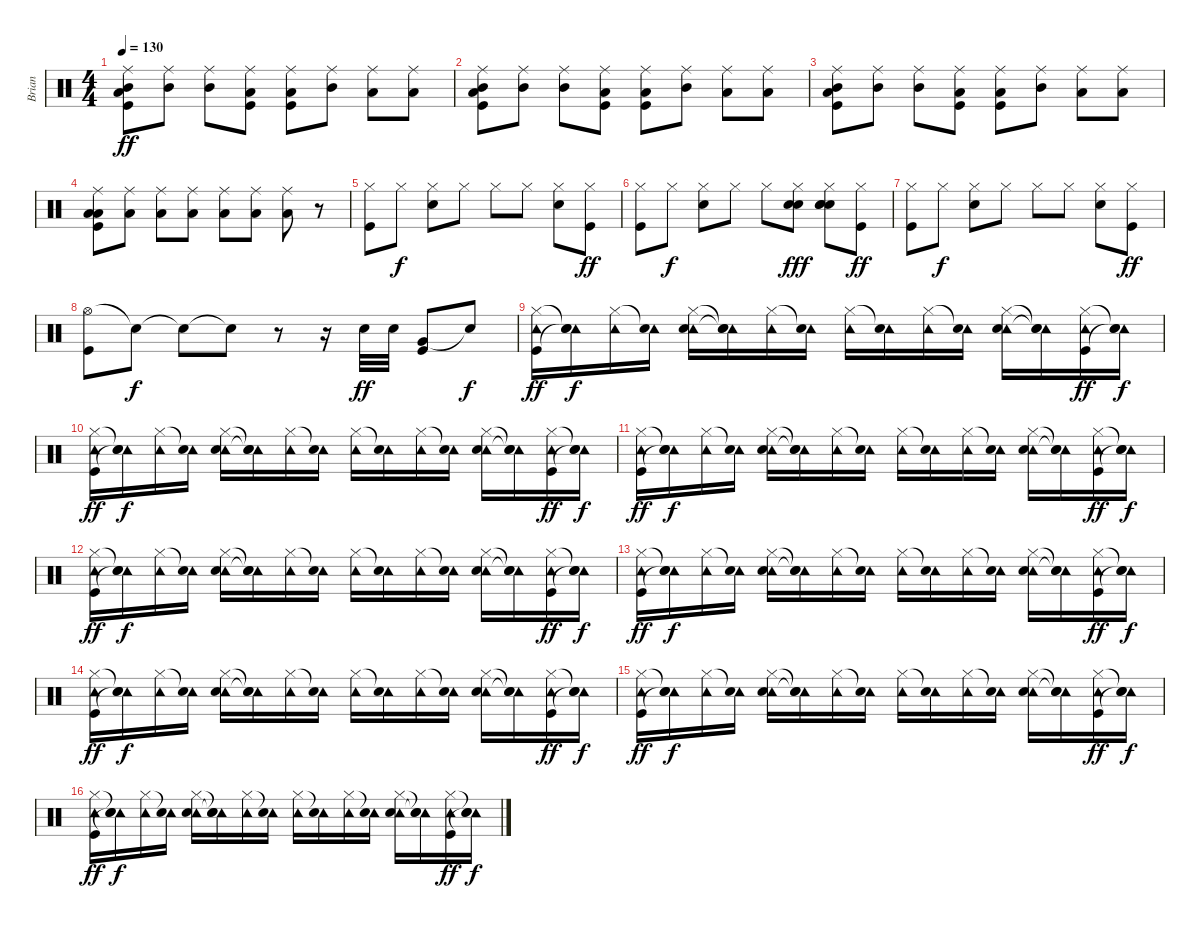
\track ("Brian" "Brian") {instrument percussion}
\staff {score}
\articulation defaults
\ts (4 4)
\tempo 130
\clef neutral
\ks c
("Ride (middle)" "Mid Tom (hit)" "Low Tom (hit)" "Kick (hit)").8{dy ff} ("Ride (middle)" "Mid Tom (hit)").8 ("Ride (middle)" "Mid Tom (hit)").8 ("Ride (middle)" "Low Tom (hit)" "Kick (hit)").8 ("Ride (middle)" "Low Tom (hit)" "Kick (hit)").8 ("Ride (middle)" "Mid Tom (hit)").8 ("Ride (middle)" "Low Tom (hit)").8 ("Ride (middle)" "Low Tom (hit)").8 |
("Ride (middle)" "Mid Tom (hit)" "Low Tom (hit)" "Kick (hit)").8 ("Ride (middle)" "Mid Tom (hit)").8 ("Ride (middle)" "Mid Tom (hit)").8 ("Ride (middle)" "Low Tom (hit)" "Kick (hit)").8 ("Ride (middle)" "Low Tom (hit)" "Kick (hit)").8 ("Ride (middle)" "Mid Tom (hit)").8 ("Ride (middle)" "Low Tom (hit)").8 ("Ride (middle)" "Low Tom (hit)").8 |
("Ride (middle)" "Mid Tom (hit)" "Low Tom (hit)" "Kick (hit)").8 ("Ride (middle)" "Mid Tom (hit)").8 ("Ride (middle)" "Mid Tom (hit)").8 ("Ride (middle)" "Low Tom (hit)" "Kick (hit)").8 ("Ride (middle)" "Low Tom (hit)" "Kick (hit)").8 ("Ride (middle)" "Mid Tom (hit)").8 ("Ride (middle)" "Low Tom (hit)").8 ("Ride (middle)" "Low Tom (hit)").8 |
("Ride (middle)" "Low Floor Tom (hit)" "Low Tom (hit)" "Kick (hit)").8 ("Ride (middle)" "Low Tom (hit)").8 ("Ride (middle)" "Low Tom (hit)").8 ("Ride (middle)" "Low Floor Tom (hit)").8 ("Ride (middle)" "Low Floor Tom (hit)").8 ("Ride (middle)" "Low Tom (hit)").8 ("Ride (middle)" "Low Floor Tom (hit)").8 r.8 |
("Hi-Hat (closed)" "Kick (hit)").8 "Hi-Hat (closed)".8{dy f} ("Hi-Hat (closed)" "Electric Snare (hit)").8 "Hi-Hat (closed)".8 "Hi-Hat (closed)".8 "Hi-Hat (closed)".8 ("Hi-Hat (closed)" "Electric Snare (hit)").8 ("Hi-Hat (closed)" "Kick (hit)").8{dy ff} |
("Hi-Hat (closed)" "Kick (hit)").8 "Hi-Hat (closed)".8{dy f} ("Hi-Hat (closed)" "Electric Snare (hit)").8 "Hi-Hat (closed)".8 "Hi-Hat (closed)".8 ("Hand Clap (hit)" "Hi-Hat (closed)" "Hand Clap (hit)").8{dy fff} ("Hand Clap (hit)" "Hi-Hat (closed)" "Hand Clap (hit)" "Electric Snare (hit)").8 ("Hi-Hat (closed)" "Kick (hit)").8{dy ff} |
("Hi-Hat (closed)" "Kick (hit)").8 "Hi-Hat (closed)".8{dy f} ("Hi-Hat (closed)" "Electric Snare (hit)").8 "Hi-Hat (closed)".8 "Hi-Hat (closed)".8 "Hi-Hat (closed)".8 ("Hi-Hat (closed)" "Electric Snare (hit)").8 ("Hi-Hat (closed)" "Kick (hit)").8{dy ff} |
("Hi-Hat (open)" "Kick (hit)").8 "Snare (hit)"{t}.8{dy f} "Snare (hit)"{t}.8 "Snare (hit)"{t}.8 r.8 r.16 "Electric Snare (hit)".32{dy ff} "Electric Snare (hit)".32 ("Very Low Tom (hit)" "Kick (hit)").8 "Electric Snare (hit)"{t}.8{dy f} |
("Tambourine (hit)" "Hi-Hat (closed)" "Kick (hit)").16{dy ff} ("Tambourine (hit)" "Snare (hit)"{t} "Snare (hit)"{t}).16{dy f} ("Tambourine (hit)" "Hi-Hat (closed)").16 ("Tambourine (hit)" "Snare (hit)"{t}).16 ("Tambourine (hit)" "Hi-Hat (closed)" "Electric Snare (hit)").16 ("Tambourine (hit)" "Snare (hit)"{t} "Snare (hit)"{t}).16 ("Tambourine (hit)" "Hi-Hat (closed)").16 ("Tambourine (hit)" "Snare (hit)"{t}).16 ("Tambourine (hit)" "Hi-Hat (closed)").16 ("Tambourine (hit)" "Snare (hit)"{t}).16 ("Tambourine (hit)" "Hi-Hat (closed)").16 ("Tambourine (hit)" "Snare (hit)"{t}).16 ("Tambourine (hit)" "Hi-Hat (closed)" "Electric Snare (hit)").16 ("Tambourine (hit)" "Snare (hit)"{t} "Snare (hit)"{t}).16 ("Tambourine (hit)" "Hi-Hat (closed)" "Kick (hit)").16{dy ff} ("Tambourine (hit)" "Snare (hit)"{t} "Snare (hit)"{t}).16{dy f} |
("Tambourine (hit)" "Hi-Hat (closed)" "Kick (hit)").16{dy ff} ("Tambourine (hit)" "Snare (hit)"{t} "Snare (hit)"{t}).16{dy f} ("Tambourine (hit)" "Hi-Hat (closed)").16 ("Tambourine (hit)" "Snare (hit)"{t}).16 ("Tambourine (hit)" "Hi-Hat (closed)" "Electric Snare (hit)").16 ("Tambourine (hit)" "Snare (hit)"{t} "Snare (hit)"{t}).16 ("Tambourine (hit)" "Hi-Hat (closed)").16 ("Tambourine (hit)" "Snare (hit)"{t}).16 ("Tambourine (hit)" "Hi-Hat (closed)").16 ("Tambourine (hit)" "Snare (hit)"{t}).16 ("Tambourine (hit)" "Hi-Hat (closed)").16 ("Tambourine (hit)" "Snare (hit)"{t}).16 ("Tambourine (hit)" "Hi-Hat (closed)" "Electric Snare (hit)").16 ("Tambourine (hit)" "Snare (hit)"{t} "Snare (hit)"{t}).16 ("Tambourine (hit)" "Hi-Hat (closed)" "Kick (hit)").16{dy ff} ("Tambourine (hit)" "Snare (hit)"{t} "Snare (hit)"{t}).16{dy f} |
("Tambourine (hit)" "Hi-Hat (closed)" "Kick (hit)").16{dy ff} ("Tambourine (hit)" "Snare (hit)"{t} "Snare (hit)"{t}).16{dy f} ("Tambourine (hit)" "Hi-Hat (closed)").16 ("Tambourine (hit)" "Snare (hit)"{t}).16 ("Tambourine (hit)" "Hi-Hat (closed)" "Electric Snare (hit)").16 ("Tambourine (hit)" "Snare (hit)"{t} "Snare (hit)"{t}).16 ("Tambourine (hit)" "Hi-Hat (closed)").16 ("Tambourine (hit)" "Snare (hit)"{t}).16 ("Tambourine (hit)" "Hi-Hat (closed)").16 ("Tambourine (hit)" "Snare (hit)"{t}).16 ("Tambourine (hit)" "Hi-Hat (closed)").16 ("Tambourine (hit)" "Snare (hit)"{t}).16 ("Tambourine (hit)" "Hi-Hat (closed)" "Electric Snare (hit)").16 ("Tambourine (hit)" "Snare (hit)"{t} "Snare (hit)"{t}).16 ("Tambourine (hit)" "Hi-Hat (closed)" "Kick (hit)").16{dy ff} ("Tambourine (hit)" "Snare (hit)"{t} "Snare (hit)"{t}).16{dy f} |
("Tambourine (hit)" "Hi-Hat (closed)" "Kick (hit)").16{dy ff} ("Tambourine (hit)" "Snare (hit)"{t} "Snare (hit)"{t}).16{dy f} ("Tambourine (hit)" "Hi-Hat (closed)").16 ("Tambourine (hit)" "Snare (hit)"{t}).16 ("Tambourine (hit)" "Hi-Hat (closed)" "Electric Snare (hit)").16 ("Tambourine (hit)" "Snare (hit)"{t} "Snare (hit)"{t}).16 ("Tambourine (hit)" "Hi-Hat (closed)").16 ("Tambourine (hit)" "Snare (hit)"{t}).16 ("Tambourine (hit)" "Hi-Hat (closed)").16 ("Tambourine (hit)" "Snare (hit)"{t}).16 ("Tambourine (hit)" "Hi-Hat (closed)").16 ("Tambourine (hit)" "Snare (hit)"{t}).16 ("Tambourine (hit)" "Hi-Hat (closed)" "Electric Snare (hit)").16 ("Tambourine (hit)" "Snare (hit)"{t} "Snare (hit)"{t}).16 ("Tambourine (hit)" "Hi-Hat (closed)" "Kick (hit)").16{dy ff} ("Tambourine (hit)" "Snare (hit)"{t} "Snare (hit)"{t}).16{dy f} |
("Tambourine (hit)" "Hi-Hat (closed)" "Kick (hit)").16{dy ff} ("Tambourine (hit)" "Snare (hit)"{t} "Snare (hit)"{t}).16{dy f} ("Tambourine (hit)" "Hi-Hat (closed)").16 ("Tambourine (hit)" "Snare (hit)"{t}).16 ("Tambourine (hit)" "Hi-Hat (closed)" "Electric Snare (hit)").16 ("Tambourine (hit)" "Snare (hit)"{t} "Snare (hit)"{t}).16 ("Tambourine (hit)" "Hi-Hat (closed)").16 ("Tambourine (hit)" "Snare (hit)"{t}).16 ("Tambourine (hit)" "Hi-Hat (closed)").16 ("Tambourine (hit)" "Snare (hit)"{t}).16 ("Tambourine (hit)" "Hi-Hat (closed)").16 ("Tambourine (hit)" "Snare (hit)"{t}).16 ("Tambourine (hit)" "Hi-Hat (closed)" "Electric Snare (hit)").16 ("Tambourine (hit)" "Snare (hit)"{t} "Snare (hit)"{t}).16 ("Tambourine (hit)" "Hi-Hat (closed)" "Kick (hit)").16{dy ff} ("Tambourine (hit)" "Snare (hit)"{t} "Snare (hit)"{t}).16{dy f} |
("Tambourine (hit)" "Hi-Hat (closed)" "Kick (hit)").16{dy ff} ("Tambourine (hit)" "Snare (hit)"{t} "Snare (hit)"{t}).16{dy f} ("Tambourine (hit)" "Hi-Hat (closed)").16 ("Tambourine (hit)" "Snare (hit)"{t}).16 ("Tambourine (hit)" "Hi-Hat (closed)" "Electric Snare (hit)").16 ("Tambourine (hit)" "Snare (hit)"{t} "Snare (hit)"{t}).16 ("Tambourine (hit)" "Hi-Hat (closed)").16 ("Tambourine (hit)" "Snare (hit)"{t}).16 ("Tambourine (hit)" "Hi-Hat (closed)").16 ("Tambourine (hit)" "Snare (hit)"{t}).16 ("Tambourine (hit)" "Hi-Hat (closed)").16 ("Tambourine (hit)" "Snare (hit)"{t}).16 ("Tambourine (hit)" "Hi-Hat (closed)" "Electric Snare (hit)").16 ("Tambourine (hit)" "Snare (hit)"{t} "Snare (hit)"{t}).16 ("Tambourine (hit)" "Hi-Hat (closed)" "Kick (hit)").16{dy ff} ("Tambourine (hit)" "Snare (hit)"{t} "Snare (hit)"{t}).16{dy f} |
("Tambourine (hit)" "Hi-Hat (closed)" "Kick (hit)").16{dy ff} ("Tambourine (hit)" "Snare (hit)"{t} "Snare (hit)"{t}).16{dy f} ("Tambourine (hit)" "Hi-Hat (closed)").16 ("Tambourine (hit)" "Snare (hit)"{t}).16 ("Tambourine (hit)" "Hi-Hat (closed)" "Electric Snare (hit)").16 ("Tambourine (hit)" "Snare (hit)"{t} "Snare (hit)"{t}).16 ("Tambourine (hit)" "Hi-Hat (closed)").16 ("Tambourine (hit)" "Snare (hit)"{t}).16 ("Tambourine (hit)" "Hi-Hat (closed)").16 ("Tambourine (hit)" "Snare (hit)"{t}).16 ("Tambourine (hit)" "Hi-Hat (closed)").16 ("Tambourine (hit)" "Snare (hit)"{t}).16 ("Tambourine (hit)" "Hi-Hat (closed)" "Electric Snare (hit)").16 ("Tambourine (hit)" "Snare (hit)"{t} "Snare (hit)"{t}).16 ("Tambourine (hit)" "Hi-Hat (closed)" "Kick (hit)").16{dy ff} ("Tambourine (hit)" "Snare (hit)"{t} "Snare (hit)"{t}).16{dy f} |
("Tambourine (hit)" "Hi-Hat (closed)" "Kick (hit)").16{dy ff} ("Tambourine (hit)" "Snare (hit)"{t} "Snare (hit)"{t}).16{dy f} ("Tambourine (hit)" "Hi-Hat (closed)").16 ("Tambourine (hit)" "Snare (hit)"{t}).16 ("Tambourine (hit)" "Hi-Hat (closed)" "Electric Snare (hit)").16 ("Tambourine (hit)" "Snare (hit)"{t} "Snare (hit)"{t}).16 ("Tambourine (hit)" "Hi-Hat (closed)").16 ("Tambourine (hit)" "Snare (hit)"{t}).16 ("Tambourine (hit)" "Hi-Hat (closed)").16 ("Tambourine (hit)" "Snare (hit)"{t}).16 ("Tambourine (hit)" "Hi-Hat (closed)").16 ("Tambourine (hit)" "Snare (hit)"{t}).16 ("Tambourine (hit)" "Hi-Hat (closed)" "Electric Snare (hit)").16 ("Tambourine (hit)" "Snare (hit)"{t} "Snare (hit)"{t}).16 ("Tambourine (hit)" "Hi-Hat (closed)" "Kick (hit)").16{dy ff} ("Tambourine (hit)" "Snare (hit)"{t} "Snare (hit)"{t}).16{dy f}
